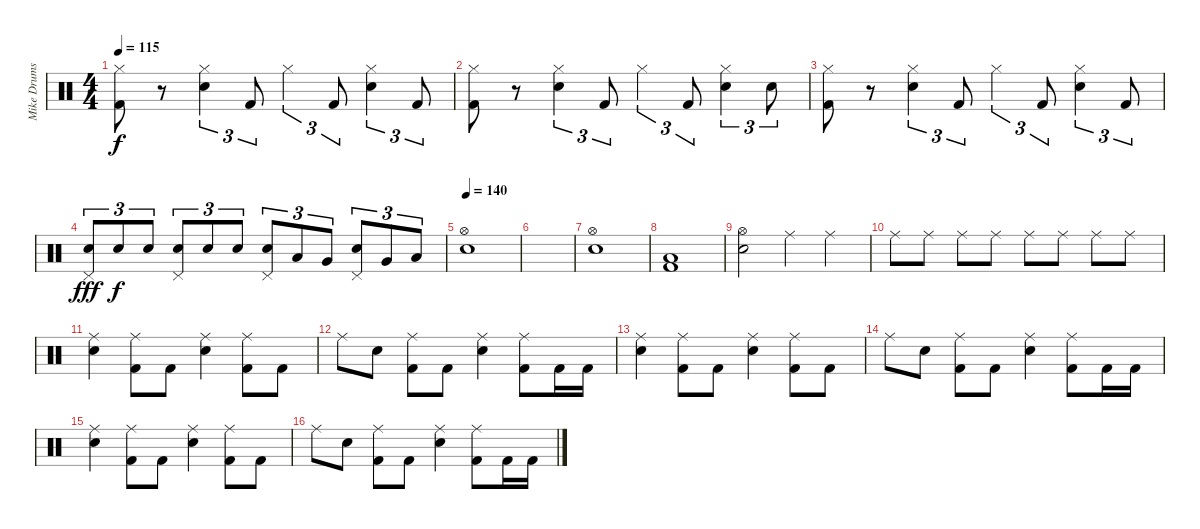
\track ("Mike Drums" "Mike Drums") {instrument percussion}
\staff {score}
\articulation defaults
\ts (4 4)
\tempo 115
\clef neutral
\ks c
("Hi-Hat (closed)" "Kick (hit) 2").8{dy f} r.8 ("Hi-Hat (closed)" "Electric Snare (hit)").4{tu (3 2)} "Kick (hit) 2".8{tu (3 2)} "Hi-Hat (closed)".4{tu (3 2)} "Kick (hit) 2".8{tu (3 2)} ("Hi-Hat (closed)" "Electric Snare (hit)").4{tu (3 2)} "Kick (hit) 2".8{tu (3 2)} |
("Hi-Hat (closed)" "Kick (hit) 2").8 r.8 ("Hi-Hat (closed)" "Electric Snare (hit)").4{tu (3 2)} "Kick (hit) 2".8{tu (3 2)} "Hi-Hat (closed)".4{tu (3 2)} "Kick (hit) 2".8{tu (3 2)} ("Hi-Hat (closed)" "Electric Snare (hit)").4{tu (3 2)} "Electric Snare (hit)".8{tu (3 2)} |
("Hi-Hat (closed)" "Kick (hit) 2").8 r.8 ("Hi-Hat (closed)" "Electric Snare (hit)").4{tu (3 2)} "Kick (hit) 2".8{tu (3 2)} "Hi-Hat (closed)".4{tu (3 2)} "Kick (hit) 2".8{tu (3 2)} ("Hi-Hat (closed)" "Electric Snare (hit)").4{tu (3 2)} "Kick (hit) 2".8{tu (3 2)} |
("Pedal Hi-Hat (hit)" "Electric Snare (hit)").8{tu (3 2) dy fff} "Electric Snare (hit)".8{tu (3 2) dy f} "Electric Snare (hit)".8{tu (3 2)} ("Pedal Hi-Hat (hit)" "Electric Snare (hit)").8{tu (3 2)} "Electric Snare (hit)".8{tu (3 2)} "Electric Snare (hit)".8{tu (3 2)} ("Pedal Hi-Hat (hit)" "Electric Snare (hit)").8{tu (3 2)} "Low Tom (hit)".8{tu (3 2)} "Very Low Tom (hit)".8{tu (3 2)} ("Pedal Hi-Hat (hit)" "Electric Snare (hit)").8{tu (3 2)} "Very Low Tom (hit)".8{tu (3 2)} "Low Floor Tom (hit)".8{tu (3 2)} |
\tempo 140
("Hi-Hat (open)" "Electric Snare (hit)").1 |
|
("Hi-Hat (open)" "Electric Snare (hit)").1 |
("Low Floor Tom (hit)" "Kick (hit) 2").1 |
("Hi-Hat (open)" "Electric Snare (hit)").2 "Ride (middle)".4 "Ride (middle)".4 |
"Ride (middle)".8 "Ride (middle)".8 "Ride (middle)".8 "Ride (middle)".8 "Ride (middle)".8 "Ride (middle)".8 "Ride (middle)".8 "Ride (middle)".8 |
("Ride (middle)" "Electric Snare (hit)").4 ("Ride (middle)" "Kick (hit) 2").8 "Kick (hit) 2".8 ("Ride (middle)" "Electric Snare (hit)").4 ("Ride (middle)" "Kick (hit) 2").8 "Kick (hit) 2".8 |
"Ride (middle)".8 "Electric Snare (hit)".8 ("Ride (middle)" "Kick (hit) 2").8 "Kick (hit) 2".8 ("Ride (middle)" "Electric Snare (hit)").4 ("Ride (middle)" "Kick (hit) 2").8 "Kick (hit) 2".16 "Kick (hit) 2".16 |
("Ride (middle)" "Electric Snare (hit)").4 ("Ride (middle)" "Kick (hit) 2").8 "Kick (hit) 2".8 ("Ride (middle)" "Electric Snare (hit)").4 ("Ride (middle)" "Kick (hit) 2").8 "Kick (hit) 2".8 |
"Ride (middle)".8 "Electric Snare (hit)".8 ("Ride (middle)" "Kick (hit) 2").8 "Kick (hit) 2".8 ("Ride (middle)" "Electric Snare (hit)").4 ("Ride (middle)" "Kick (hit) 2").8 "Kick (hit) 2".16 "Kick (hit) 2".16 |
("Ride (middle)" "Electric Snare (hit)").4 ("Ride (middle)" "Kick (hit) 2").8 "Kick (hit) 2".8 ("Ride (middle)" "Electric Snare (hit)").4 ("Ride (middle)" "Kick (hit) 2").8 "Kick (hit) 2".8 |
"Ride (middle)".8 "Electric Snare (hit)".8 ("Ride (middle)" "Kick (hit) 2").8 "Kick (hit) 2".8 ("Ride (middle)" "Electric Snare (hit)").4 ("Ride (middle)" "Kick (hit) 2").8 "Kick (hit) 2".16 "Kick (hit) 2".16
